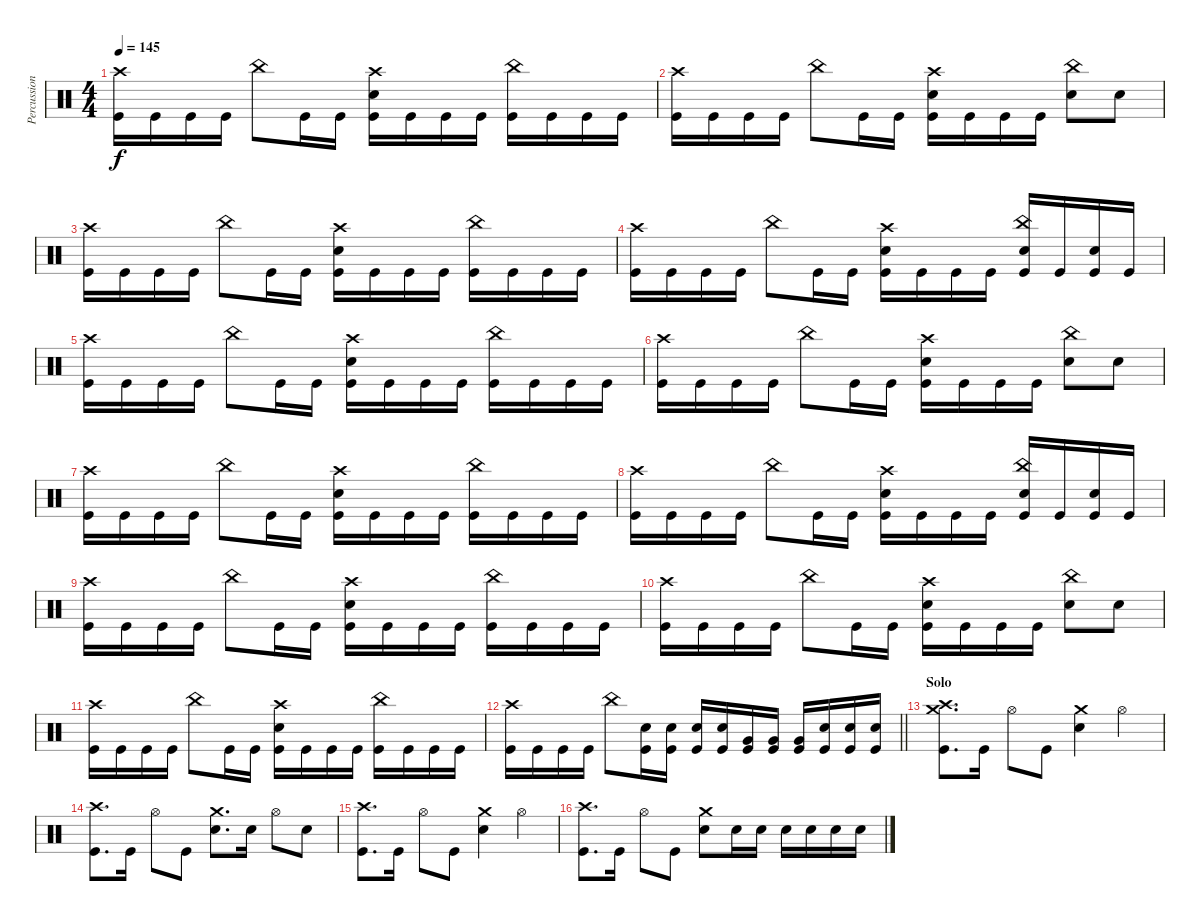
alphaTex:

\track ("Percussion" "Percussion") {instrument percussion}
\staff {score}
\articulation defaults
\ts (4 4)
\tempo 145
\clef neutral
\ks c
("Crash high (hit)" "Kick (hit)").16{dy f} "Kick (hit)".16 "Kick (hit)".16 "Kick (hit)".16 "China (hit)".8 "Kick (hit)".16 "Kick (hit)".16 ("Crash high (hit)" "Electric Snare (hit)" "Kick (hit)").16 "Kick (hit)".16 "Kick (hit)".16 "Kick (hit)".16 ("China (hit)" "Kick (hit)").16 "Kick (hit)".16 "Kick (hit)".16 "Kick (hit)".16 |
("Crash high (hit)" "Kick (hit)").16 "Kick (hit)".16 "Kick (hit)".16 "Kick (hit)".16 "China (hit)".8 "Kick (hit)".16 "Kick (hit)".16 ("Crash high (hit)" "Electric Snare (hit)" "Kick (hit)").16 "Kick (hit)".16 "Kick (hit)".16 "Kick (hit)".16 ("China (hit)" "Electric Snare (hit)").8 "Electric Snare (hit)".8 |
("Crash high (hit)" "Kick (hit)").16 "Kick (hit)".16 "Kick (hit)".16 "Kick (hit)".16 "China (hit)".8 "Kick (hit)".16 "Kick (hit)".16 ("Crash high (hit)" "Electric Snare (hit)" "Kick (hit)").16 "Kick (hit)".16 "Kick (hit)".16 "Kick (hit)".16 ("China (hit)" "Kick (hit)").16 "Kick (hit)".16 "Kick (hit)".16 "Kick (hit)".16 |
("Crash high (hit)" "Kick (hit)").16 "Kick (hit)".16 "Kick (hit)".16 "Kick (hit)".16 "China (hit)".8 "Kick (hit)".16 "Kick (hit)".16 ("Crash high (hit)" "Electric Snare (hit)" "Kick (hit)").16 "Kick (hit)".16 "Kick (hit)".16 "Kick (hit)".16 ("China (hit)" "Electric Snare (hit)" "Kick (hit)").16 "Kick (hit)".16 ("Electric Snare (hit)" "Kick (hit)").16 "Kick (hit)".16 |
("Crash high (hit)" "Kick (hit)").16 "Kick (hit)".16 "Kick (hit)".16 "Kick (hit)".16 "China (hit)".8 "Kick (hit)".16 "Kick (hit)".16 ("Crash high (hit)" "Electric Snare (hit)" "Kick (hit)").16 "Kick (hit)".16 "Kick (hit)".16 "Kick (hit)".16 ("China (hit)" "Kick (hit)").16 "Kick (hit)".16 "Kick (hit)".16 "Kick (hit)".16 |
("Crash high (hit)" "Kick (hit)").16 "Kick (hit)".16 "Kick (hit)".16 "Kick (hit)".16 "China (hit)".8 "Kick (hit)".16 "Kick (hit)".16 ("Crash high (hit)" "Electric Snare (hit)" "Kick (hit)").16 "Kick (hit)".16 "Kick (hit)".16 "Kick (hit)".16 ("China (hit)" "Electric Snare (hit)").8 "Electric Snare (hit)".8 |
("Crash high (hit)" "Kick (hit)").16 "Kick (hit)".16 "Kick (hit)".16 "Kick (hit)".16 "China (hit)".8 "Kick (hit)".16 "Kick (hit)".16 ("Crash high (hit)" "Electric Snare (hit)" "Kick (hit)").16 "Kick (hit)".16 "Kick (hit)".16 "Kick (hit)".16 ("China (hit)" "Kick (hit)").16 "Kick (hit)".16 "Kick (hit)".16 "Kick (hit)".16 |
("Crash high (hit)" "Kick (hit)").16 "Kick (hit)".16 "Kick (hit)".16 "Kick (hit)".16 "China (hit)".8 "Kick (hit)".16 "Kick (hit)".16 ("Crash high (hit)" "Electric Snare (hit)" "Kick (hit)").16 "Kick (hit)".16 "Kick (hit)".16 "Kick (hit)".16 ("China (hit)" "Electric Snare (hit)" "Kick (hit)").16 "Kick (hit)".16 ("Electric Snare (hit)" "Kick (hit)").16 "Kick (hit)".16 |
("Crash high (hit)" "Kick (hit)").16 "Kick (hit)".16 "Kick (hit)".16 "Kick (hit)".16 "China (hit)".8 "Kick (hit)".16 "Kick (hit)".16 ("Crash high (hit)" "Electric Snare (hit)" "Kick (hit)").16 "Kick (hit)".16 "Kick (hit)".16 "Kick (hit)".16 ("China (hit)" "Kick (hit)").16 "Kick (hit)".16 "Kick (hit)".16 "Kick (hit)".16 |
("Crash high (hit)" "Kick (hit)").16 "Kick (hit)".16 "Kick (hit)".16 "Kick (hit)".16 "China (hit)".8 "Kick (hit)".16 "Kick (hit)".16 ("Crash high (hit)" "Electric Snare (hit)" "Kick (hit)").16 "Kick (hit)".16 "Kick (hit)".16 "Kick (hit)".16 ("China (hit)" "Electric Snare (hit)").8 "Electric Snare (hit)".8 |
("Crash high (hit)" "Kick (hit)").16 "Kick (hit)".16 "Kick (hit)".16 "Kick (hit)".16 "China (hit)".8 "Kick (hit)".16 "Kick (hit)".16 ("Crash high (hit)" "Electric Snare (hit)" "Kick (hit)").16 "Kick (hit)".16 "Kick (hit)".16 "Kick (hit)".16 ("China (hit)" "Kick (hit)").16 "Kick (hit)".16 "Kick (hit)".16 "Kick (hit)".16 |
\barLineRight lightlight
("Crash high (hit)" "Kick (hit)").16 "Kick (hit)".16 "Kick (hit)".16 "Kick (hit)".16 "China (hit)".8 ("Electric Snare (hit)" "Kick (hit)").16 ("Electric Snare (hit)" "Kick (hit)").16 ("Electric Snare (hit)" "Kick (hit)").16 ("Electric Snare (hit)" "Kick (hit)").16 ("Very Low Tom (hit)" "Kick (hit)").16 ("Very Low Tom (hit)" "Kick (hit)").16 ("Very Low Tom (hit)" "Kick (hit)").16 ("Electric Snare (hit)" "Kick (hit)").16 ("Electric Snare (hit)" "Kick (hit)").16 ("Electric Snare (hit)" "Kick (hit)").16 |
\section ("" "Solo")
("Crash high (hit)" "Crash medium (hit)" "Kick (hit)").8{d} "Kick (hit)".16 "Hi-Hat (open)".8 "Kick (hit)".8 ("Crash medium (hit)" "Electric Snare (hit)").4 "Hi-Hat (open)".4 |
("Crash high (hit)" "Kick (hit)").8{d} "Kick (hit)".16 "Hi-Hat (open)".8 "Kick (hit)".8 ("Crash medium (hit)" "Electric Snare (hit)").8{d} "Electric Snare (hit)".16 "Hi-Hat (open)".8 "Electric Snare (hit)".8 |
("Crash high (hit)" "Kick (hit)").8{d} "Kick (hit)".16 "Hi-Hat (open)".8 "Kick (hit)".8 ("Crash medium (hit)" "Electric Snare (hit)").4 "Hi-Hat (open)".4 |
("Crash high (hit)" "Kick (hit)").8{d} "Kick (hit)".16 "Hi-Hat (open)".8 "Kick (hit)".8 ("Crash medium (hit)" "Electric Snare (hit)").8 "Electric Snare (hit)".16 "Electric Snare (hit)".16 "Electric Snare (hit)".16 "Electric Snare (hit)".16 "Electric Snare (hit)".16 "Electric Snare (hit)".16
